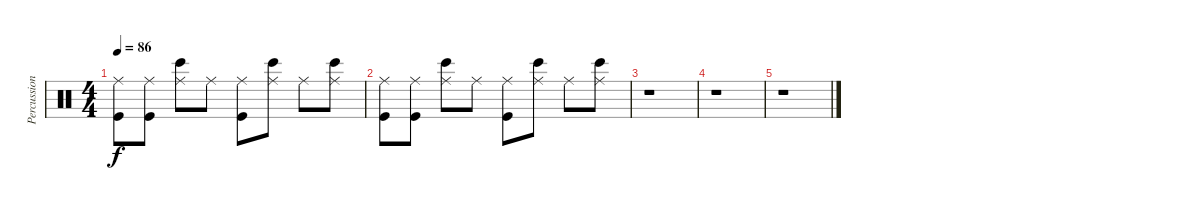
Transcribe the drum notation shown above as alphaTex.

\track ("Percussion" "Percussion") {instrument percussion}
\staff {score}
\articulation defaults
\ts (4 4)
\tempo 86
\clef neutral
\ks c
("Ride (middle)" "Kick (hit)").8{dy f} ("Ride (middle)" "Kick (hit)").8 ("Ride (middle)" "Bongo High (hit)").8 "Ride (middle)".8 ("Ride (middle)" "Kick (hit)").8 ("Ride (middle)" "Bongo High (hit)").8 "Ride (middle)".8 ("Ride (middle)" "Bongo High (hit)").8 |
("Ride (middle)" "Kick (hit)").8 ("Ride (middle)" "Kick (hit)").8 ("Ride (middle)" "Bongo High (hit)").8 "Ride (middle)".8 ("Ride (middle)" "Kick (hit)").8 ("Ride (middle)" "Bongo High (hit)").8 "Ride (middle)".8 ("Ride (middle)" "Bongo High (hit)").8 |
r.1 |
r.1 |
r.1
